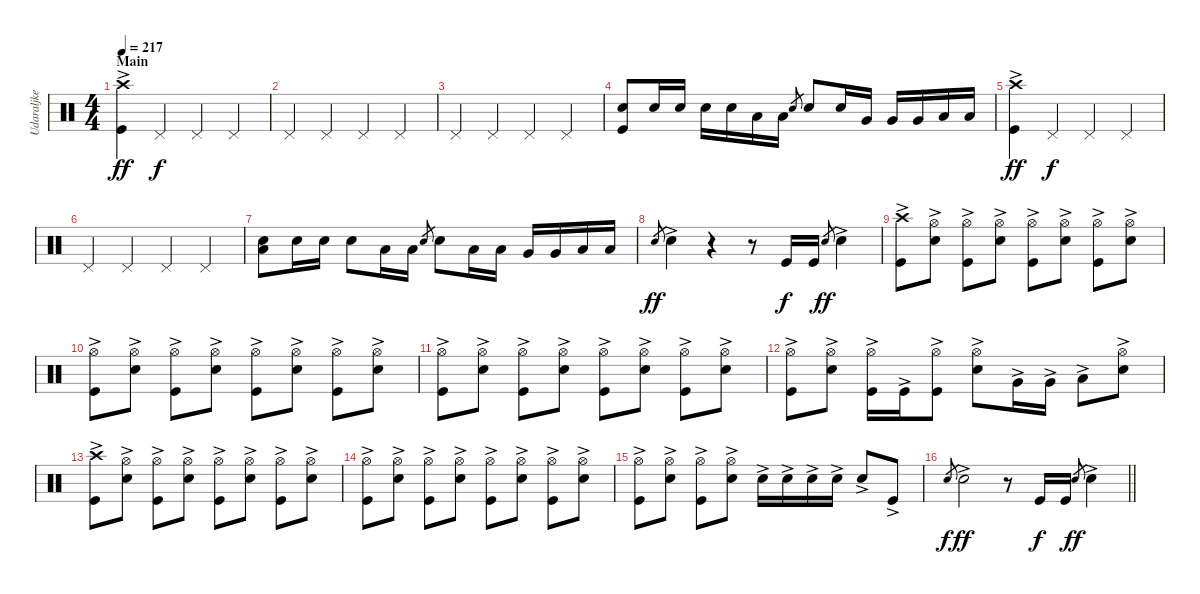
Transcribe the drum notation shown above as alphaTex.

\track ("Udaraljke" "Udaraljke") {instrument percussion}
\staff {score}
\articulation defaults
\ts (4 4)
\section ("" "Main ")
\tempo 217
\clef neutral
\ks c
("Kick (hit)"{ac} "Crash high (hit)").4{dy ff} "Pedal Hi-Hat (hit)".4{dy f} "Pedal Hi-Hat (hit)".4 "Pedal Hi-Hat (hit)".4 |
"Pedal Hi-Hat (hit)".4 "Pedal Hi-Hat (hit)".4 "Pedal Hi-Hat (hit)".4 "Pedal Hi-Hat (hit)".4 |
"Pedal Hi-Hat (hit)".4 "Pedal Hi-Hat (hit)".4 "Pedal Hi-Hat (hit)".4 "Pedal Hi-Hat (hit)".4 |
("Snare (hit) 2" "Kick (hit)").8 "Snare (hit) 2".16 "Snare (hit) 2".16 "Snare (hit) 2".16 "Snare (hit) 2".16 "Low Tom (hit)".16 "Low Tom (hit)".16 "Snare (hit) 2".8{gr} "Snare (hit) 2".8 "Snare (hit) 2".16 "Very Low Tom (hit)".16 "Very Low Tom (hit)".16 "Very Low Tom (hit)".16 "Low Floor Tom (hit)".16 "Low Floor Tom (hit)".16 |
("Kick (hit)"{ac} "Crash high (hit)").4{dy ff} "Pedal Hi-Hat (hit)".4{dy f} "Pedal Hi-Hat (hit)".4 "Pedal Hi-Hat (hit)".4 |
"Pedal Hi-Hat (hit)".4 "Pedal Hi-Hat (hit)".4 "Pedal Hi-Hat (hit)".4 "Pedal Hi-Hat (hit)".4 |
("Snare (hit) 2" "Low Tom (hit)").8 "Snare (hit) 2".16 "Snare (hit) 2".16 "Snare (hit) 2".8 "Low Tom (hit)".16 "Low Tom (hit)".16 "Snare (hit) 2".8{gr} "Snare (hit) 2".8 "Low Tom (hit)".16 "Low Tom (hit)".16 "Very Low Tom (hit)".16 "Very Low Tom (hit)".16 "Low Floor Tom (hit)".16 "Low Floor Tom (hit)".16 |
"Snare (hit) 2".8{gr dy ff} "Snare (hit) 2"{ac}.4 r.4 r.8 "Kick (hit)".16{dy f} "Kick (hit)".16 "Snare (hit) 2".8{gr dy ff} "Snare (hit) 2"{ac}.4 |
("Kick (hit)"{ac} "Crash high (hit)"{ac}).8 ("Snare (hit) 2"{ac} "Hi-Hat (open)").8 ("Kick (hit)"{ac} "Hi-Hat (open)").8 ("Snare (hit) 2"{ac} "Hi-Hat (open)").8 ("Kick (hit)"{ac} "Hi-Hat (open)").8 ("Snare (hit) 2"{ac} "Hi-Hat (open)").8 ("Kick (hit)"{ac} "Hi-Hat (open)").8 ("Snare (hit) 2"{ac} "Hi-Hat (open)").8 |
("Kick (hit)"{ac} "Hi-Hat (open)"{ac}).8 ("Snare (hit) 2"{ac} "Hi-Hat (open)").8 ("Kick (hit)"{ac} "Hi-Hat (open)").8 ("Snare (hit) 2"{ac} "Hi-Hat (open)").8 ("Kick (hit)"{ac} "Hi-Hat (open)").8 ("Snare (hit) 2"{ac} "Hi-Hat (open)").8 ("Kick (hit)"{ac} "Hi-Hat (open)").8 ("Snare (hit) 2"{ac} "Hi-Hat (open)").8 |
("Kick (hit)"{ac} "Hi-Hat (open)"{ac}).8 ("Snare (hit) 2"{ac} "Hi-Hat (open)").8 ("Kick (hit)"{ac} "Hi-Hat (open)").8 ("Snare (hit) 2"{ac} "Hi-Hat (open)").8 ("Kick (hit)"{ac} "Hi-Hat (open)").8 ("Snare (hit) 2"{ac} "Hi-Hat (open)").8 ("Kick (hit)"{ac} "Hi-Hat (open)").8 ("Snare (hit) 2"{ac} "Hi-Hat (open)").8 |
("Kick (hit)"{ac} "Hi-Hat (open)"{ac}).8 ("Snare (hit) 2"{ac} "Hi-Hat (open)").8 ("Kick (hit)"{ac} "Hi-Hat (open)").16 "Kick (hit)"{ac}.16 ("Kick (hit)"{ac} "Hi-Hat (open)").8 ("Snare (hit) 2"{ac} "Hi-Hat (open)").8 "Very Low Tom (hit)"{ac}.16 "Very Low Tom (hit)"{ac}.16 "Low Floor Tom (hit)"{ac}.8 ("Snare (hit) 2"{ac} "Hi-Hat (open)").8 |
("Kick (hit)"{ac} "Crash high (hit)"{ac}).8 ("Snare (hit) 2"{ac} "Hi-Hat (open)").8 ("Kick (hit)"{ac} "Hi-Hat (open)").8 ("Snare (hit) 2"{ac} "Hi-Hat (open)").8 ("Kick (hit)"{ac} "Hi-Hat (open)").8 ("Snare (hit) 2"{ac} "Hi-Hat (open)").8 ("Kick (hit)"{ac} "Hi-Hat (open)").8 ("Snare (hit) 2"{ac} "Hi-Hat (open)").8 |
("Kick (hit)"{ac} "Hi-Hat (open)"{ac}).8 ("Snare (hit) 2"{ac} "Hi-Hat (open)").8 ("Kick (hit)"{ac} "Hi-Hat (open)").8 ("Snare (hit) 2"{ac} "Hi-Hat (open)").8 ("Kick (hit)"{ac} "Hi-Hat (open)").8 ("Snare (hit) 2"{ac} "Hi-Hat (open)").8 ("Kick (hit)"{ac} "Hi-Hat (open)").8 ("Snare (hit) 2"{ac} "Hi-Hat (open)").8 |
("Kick (hit)"{ac} "Hi-Hat (open)"{ac}).8 ("Snare (hit) 2"{ac} "Hi-Hat (open)").8 ("Kick (hit)"{ac} "Hi-Hat (open)"{ac}).8 ("Snare (hit) 2"{ac} "Hi-Hat (open)").8 "Snare (hit) 2"{ac}.16 "Snare (hit) 2"{ac}.16 "Snare (hit) 2"{ac}.16 "Snare (hit) 2"{ac}.16 "Snare (hit) 2"{ac}.8 "Kick (hit)"{ac}.8 |
\barLineRight lightlight "Snare (hit) 2".8{gr dy f} "Snare (hit) 2"{ac}.2{dy ff}
r.8 "Kick (hit)".16{dy f} "Kick (hit)".16 "Snare (hit) 2".8{gr dy ff} "Snare (hit) 2"{ac}.4
